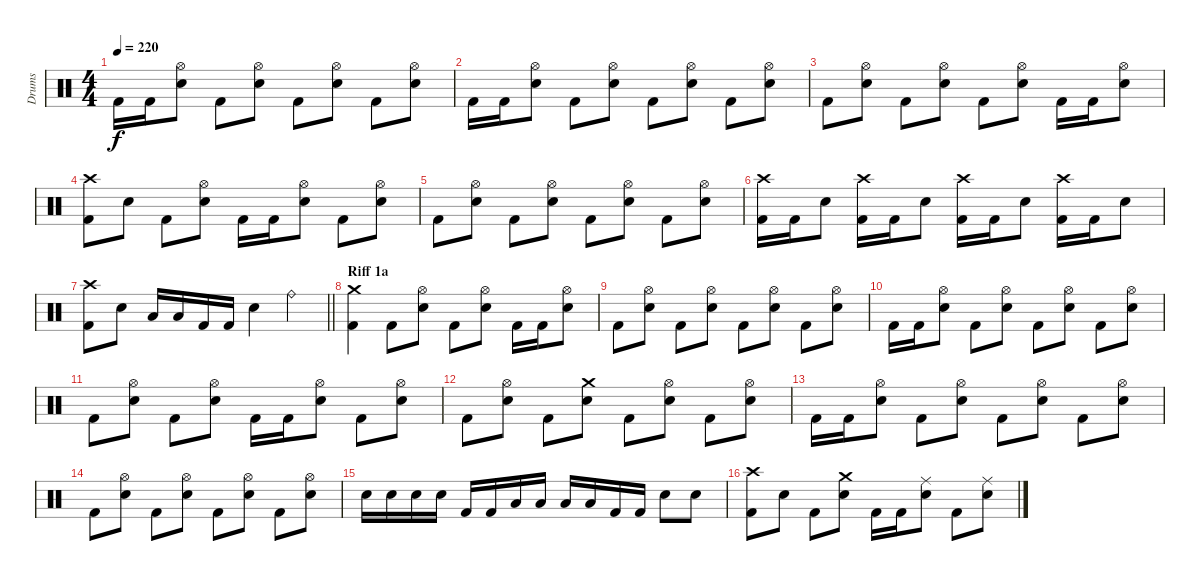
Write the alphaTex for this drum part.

\track ("Drums" "Drums") {instrument percussion}
\staff {score}
\articulation defaults
\ts (4 4)
\tempo 220
\clef neutral
\ks c "Kick (hit) 2".16{dy f} "Kick (hit) 2".16
("Electric Snare (hit)" "Hi-Hat (open)").8 "Kick (hit) 2".8 ("Electric Snare (hit)" "Hi-Hat (open)").8 "Kick (hit) 2".8 ("Electric Snare (hit)" "Hi-Hat (open)").8 "Kick (hit) 2".8 ("Electric Snare (hit)" "Hi-Hat (open)").8 |
"Kick (hit) 2".16 "Kick (hit) 2".16 ("Electric Snare (hit)" "Hi-Hat (open)").8 "Kick (hit) 2".8 ("Electric Snare (hit)" "Hi-Hat (open)").8 "Kick (hit) 2".8 ("Electric Snare (hit)" "Hi-Hat (open)").8 "Kick (hit) 2".8 ("Electric Snare (hit)" "Hi-Hat (open)").8 |
"Kick (hit) 2".8 ("Electric Snare (hit)" "Hi-Hat (open)").8 "Kick (hit) 2".8 ("Electric Snare (hit)" "Hi-Hat (open)").8 "Kick (hit) 2".8 ("Electric Snare (hit)" "Hi-Hat (open)").8 "Kick (hit) 2".16 "Kick (hit) 2".16 ("Electric Snare (hit)" "Hi-Hat (open)").8 |
("Crash high (hit)" "Kick (hit) 2").8 "Electric Snare (hit)".8 "Kick (hit) 2".8 ("Electric Snare (hit)" "Hi-Hat (open)").8 "Kick (hit) 2".16 "Kick (hit) 2".16 ("Electric Snare (hit)" "Hi-Hat (open)").8 "Kick (hit) 2".8 ("Electric Snare (hit)" "Hi-Hat (open)").8 |
"Kick (hit) 2".8 ("Electric Snare (hit)" "Hi-Hat (open)").8 "Kick (hit) 2".8 ("Electric Snare (hit)" "Hi-Hat (open)").8 "Kick (hit) 2".8 ("Electric Snare (hit)" "Hi-Hat (open)").8 "Kick (hit) 2".8 ("Electric Snare (hit)" "Hi-Hat (open)").8 |
("Crash high (hit)" "Kick (hit) 2").16 "Kick (hit) 2".16 "Electric Snare (hit)".8 ("Crash high (hit)" "Kick (hit) 2").16 "Kick (hit) 2".16 "Electric Snare (hit)".8 ("Crash high (hit)" "Kick (hit) 2").16 "Kick (hit) 2".16 "Electric Snare (hit)".8 ("Crash high (hit)" "Kick (hit) 2").16 "Kick (hit) 2".16 "Electric Snare (hit)".8 |
\barLineRight lightlight
("Crash high (hit)" "Kick (hit) 2").8 "Electric Snare (hit)".8 "Low Tom (hit)".16 "Low Tom (hit)".16 "Kick (hit) 2".16 "Kick (hit) 2".16 "Electric Snare (hit)".4 "Ride (bell)".4 |
\section ("" "Riff 1a")
("Crash medium (hit)" "Kick (hit) 2").4 "Kick (hit) 2".8 ("Hi-Hat (open)" "Electric Snare (hit)").8 "Kick (hit) 2".8 ("Hi-Hat (open)" "Electric Snare (hit)").8 "Kick (hit) 2".16 "Kick (hit) 2".16 ("Electric Snare (hit)" "Hi-Hat (open)").8 |
"Kick (hit) 2".8 ("Hi-Hat (open)" "Electric Snare (hit)").8 "Kick (hit) 2".8 ("Electric Snare (hit)" "Hi-Hat (open)").8 "Kick (hit) 2".8 ("Hi-Hat (open)" "Electric Snare (hit)").8 "Kick (hit) 2".8 ("Electric Snare (hit)" "Hi-Hat (open)").8 |
"Kick (hit) 2".16 "Kick (hit) 2".16 ("Hi-Hat (open)" "Electric Snare (hit)").8 "Kick (hit) 2".8 ("Electric Snare (hit)" "Hi-Hat (open)").8 "Kick (hit) 2".8 ("Hi-Hat (open)" "Electric Snare (hit)").8 "Kick (hit) 2".8 ("Electric Snare (hit)" "Hi-Hat (open)").8 |
"Kick (hit) 2".8 ("Hi-Hat (open)" "Electric Snare (hit)").8 "Kick (hit) 2".8 ("Electric Snare (hit)" "Hi-Hat (open)").8 "Kick (hit) 2".16 "Kick (hit) 2".16 ("Electric Snare (hit)" "Hi-Hat (open)").8 "Kick (hit) 2".8 ("Electric Snare (hit)" "Hi-Hat (open)").8 |
"Kick (hit) 2".8 ("Hi-Hat (open)" "Electric Snare (hit)").8 "Kick (hit) 2".8 ("Electric Snare (hit)" "Crash medium (hit)").8 "Kick (hit) 2".8 ("Hi-Hat (open)" "Electric Snare (hit)").8 "Kick (hit) 2".8 ("Electric Snare (hit)" "Hi-Hat (open)").8 |
"Kick (hit) 2".16 "Kick (hit) 2".16 ("Hi-Hat (open)" "Electric Snare (hit)").8 "Kick (hit) 2".8 ("Electric Snare (hit)" "Hi-Hat (open)").8 "Kick (hit) 2".8 ("Hi-Hat (open)" "Electric Snare (hit)").8 "Kick (hit) 2".8 ("Electric Snare (hit)" "Hi-Hat (open)").8 |
"Kick (hit) 2".8 ("Hi-Hat (open)" "Electric Snare (hit)").8 "Kick (hit) 2".8 ("Electric Snare (hit)" "Hi-Hat (open)").8 "Kick (hit) 2".8 ("Hi-Hat (open)" "Electric Snare (hit)").8 "Kick (hit) 2".8 ("Electric Snare (hit)" "Hi-Hat (open)").8 |
"Electric Snare (hit)".16 "Electric Snare (hit)".16 "Electric Snare (hit)".16 "Electric Snare (hit)".16 "Kick (hit) 2".16 "Kick (hit) 2".16 "Low Tom (hit)".16 "Low Tom (hit)".16 "Low Tom (hit)".16 "Low Tom (hit)".16 "Kick (hit) 2".16 "Kick (hit) 2".16 "Electric Snare (hit)".8 "Electric Snare (hit)".8 |
("Crash high (hit)" "Kick (hit) 2").8 "Electric Snare (hit)".8 "Kick (hit) 2".8 ("Crash medium (hit)" "Electric Snare (hit)").8 "Kick (hit) 2".16 "Kick (hit) 2".16 ("Electric Snare (hit)" "Ride (middle)").8 "Kick (hit) 2".8 ("Electric Snare (hit)" "Ride (middle)").8
